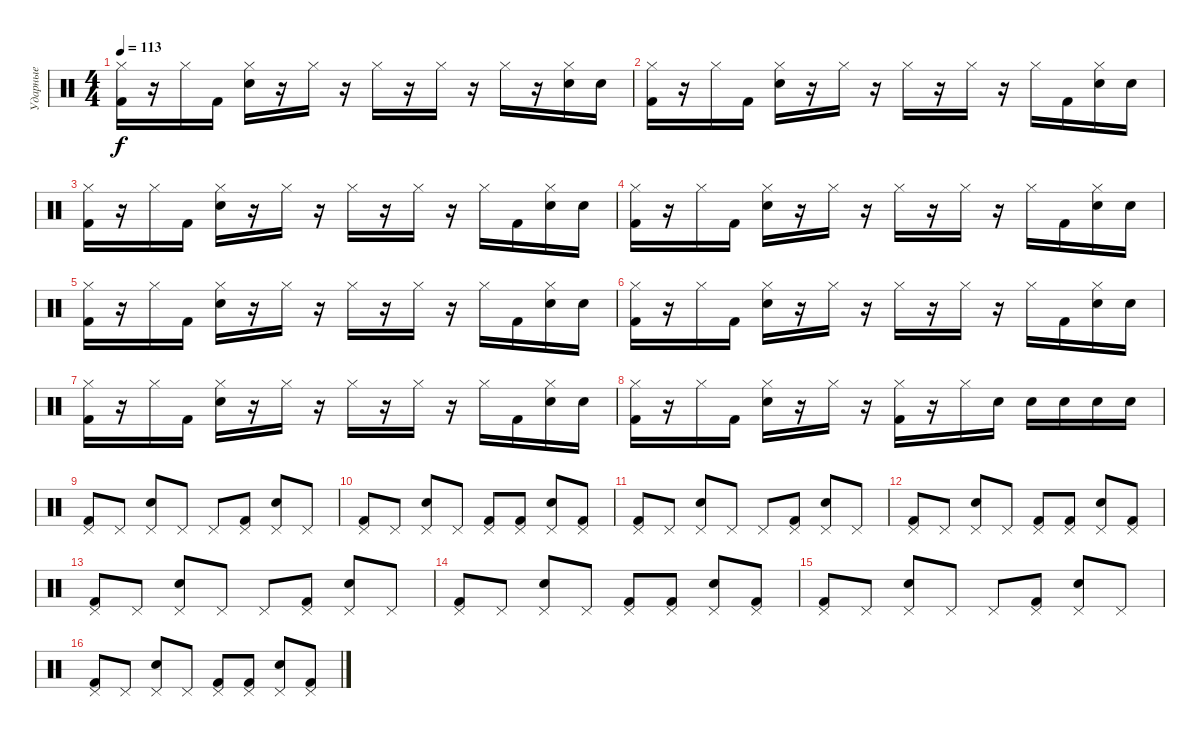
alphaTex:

\track ("Ударные" "Ударные") {instrument percussion}
\staff {score}
\articulation defaults
\ts (4 4)
\tempo 113
\clef neutral
\ks c
("Kick (hit) 2" "Hi-Hat (closed)").16{dy f} r.16 "Hi-Hat (closed)".16 "Kick (hit) 2".16 ("Electric Snare (hit)" "Hi-Hat (closed)").16 r.16 "Hi-Hat (closed)".16 r.16 "Hi-Hat (closed)".16 r.16 "Hi-Hat (closed)".16 r.16 "Hi-Hat (closed)".16 r.16 ("Electric Snare (hit)" "Hi-Hat (closed)").16 "Electric Snare (hit)".16 |
("Kick (hit) 2" "Hi-Hat (closed)").16 r.16 "Hi-Hat (closed)".16 "Kick (hit) 2".16 ("Electric Snare (hit)" "Hi-Hat (closed)").16 r.16 "Hi-Hat (closed)".16 r.16 "Hi-Hat (closed)".16 r.16 "Hi-Hat (closed)".16 r.16 "Hi-Hat (closed)".16 "Kick (hit) 2".16 ("Electric Snare (hit)" "Hi-Hat (closed)").16 "Electric Snare (hit)".16 |
("Kick (hit) 2" "Hi-Hat (closed)").16 r.16 "Hi-Hat (closed)".16 "Kick (hit) 2".16 ("Electric Snare (hit)" "Hi-Hat (closed)").16 r.16 "Hi-Hat (closed)".16 r.16 "Hi-Hat (closed)".16 r.16 "Hi-Hat (closed)".16 r.16 "Hi-Hat (closed)".16 "Kick (hit) 2".16 ("Electric Snare (hit)" "Hi-Hat (closed)").16 "Electric Snare (hit)".16 |
("Kick (hit) 2" "Hi-Hat (closed)").16 r.16 "Hi-Hat (closed)".16 "Kick (hit) 2".16 ("Electric Snare (hit)" "Hi-Hat (closed)").16 r.16 "Hi-Hat (closed)".16 r.16 "Hi-Hat (closed)".16 r.16 "Hi-Hat (closed)".16 r.16 "Hi-Hat (closed)".16 "Kick (hit) 2".16 ("Electric Snare (hit)" "Hi-Hat (closed)").16 "Electric Snare (hit)".16 |
("Kick (hit) 2" "Hi-Hat (closed)").16 r.16 "Hi-Hat (closed)".16 "Kick (hit) 2".16 ("Electric Snare (hit)" "Hi-Hat (closed)").16 r.16 "Hi-Hat (closed)".16 r.16 "Hi-Hat (closed)".16 r.16 "Hi-Hat (closed)".16 r.16 "Hi-Hat (closed)".16 "Kick (hit) 2".16 ("Electric Snare (hit)" "Hi-Hat (closed)").16 "Electric Snare (hit)".16 |
("Kick (hit) 2" "Hi-Hat (closed)").16 r.16 "Hi-Hat (closed)".16 "Kick (hit) 2".16 ("Electric Snare (hit)" "Hi-Hat (closed)").16 r.16 "Hi-Hat (closed)".16 r.16 "Hi-Hat (closed)".16 r.16 "Hi-Hat (closed)".16 r.16 "Hi-Hat (closed)".16 "Kick (hit) 2".16 ("Electric Snare (hit)" "Hi-Hat (closed)").16 "Electric Snare (hit)".16 |
("Kick (hit) 2" "Hi-Hat (closed)").16 r.16 "Hi-Hat (closed)".16 "Kick (hit) 2".16 ("Electric Snare (hit)" "Hi-Hat (closed)").16 r.16 "Hi-Hat (closed)".16 r.16 "Hi-Hat (closed)".16 r.16 "Hi-Hat (closed)".16 r.16 "Hi-Hat (closed)".16 "Kick (hit) 2".16 ("Electric Snare (hit)" "Hi-Hat (closed)").16 "Electric Snare (hit)".16 |
("Kick (hit) 2" "Hi-Hat (closed)").16 r.16 "Hi-Hat (closed)".16 "Kick (hit) 2".16 ("Electric Snare (hit)" "Hi-Hat (closed)").16 r.16 "Hi-Hat (closed)".16 r.16 ("Kick (hit) 2" "Hi-Hat (closed)").16 r.16 "Hi-Hat (closed)".16 "Electric Snare (hit)".16 "Electric Snare (hit)".16 "Electric Snare (hit)".16 "Electric Snare (hit)".16 "Electric Snare (hit)".16 |
("Kick (hit) 2" "Pedal Hi-Hat (hit)").8 "Pedal Hi-Hat (hit)".8 ("Electric Snare (hit)" "Pedal Hi-Hat (hit)").8 "Pedal Hi-Hat (hit)".8 "Pedal Hi-Hat (hit)".8 ("Kick (hit) 2" "Pedal Hi-Hat (hit)").8 ("Electric Snare (hit)" "Pedal Hi-Hat (hit)").8 "Pedal Hi-Hat (hit)".8 |
("Kick (hit) 2" "Pedal Hi-Hat (hit)").8 "Pedal Hi-Hat (hit)".8 ("Electric Snare (hit)" "Pedal Hi-Hat (hit)").8 "Pedal Hi-Hat (hit)".8 ("Kick (hit) 2" "Pedal Hi-Hat (hit)").8 ("Kick (hit) 2" "Pedal Hi-Hat (hit)").8 ("Electric Snare (hit)" "Pedal Hi-Hat (hit)").8 ("Kick (hit) 2" "Pedal Hi-Hat (hit)").8 |
("Kick (hit) 2" "Pedal Hi-Hat (hit)").8 "Pedal Hi-Hat (hit)".8 ("Electric Snare (hit)" "Pedal Hi-Hat (hit)").8 "Pedal Hi-Hat (hit)".8 "Pedal Hi-Hat (hit)".8 ("Kick (hit) 2" "Pedal Hi-Hat (hit)").8 ("Electric Snare (hit)" "Pedal Hi-Hat (hit)").8 "Pedal Hi-Hat (hit)".8 |
("Kick (hit) 2" "Pedal Hi-Hat (hit)").8 "Pedal Hi-Hat (hit)".8 ("Electric Snare (hit)" "Pedal Hi-Hat (hit)").8 "Pedal Hi-Hat (hit)".8 ("Kick (hit) 2" "Pedal Hi-Hat (hit)").8 ("Kick (hit) 2" "Pedal Hi-Hat (hit)").8 ("Electric Snare (hit)" "Pedal Hi-Hat (hit)").8 ("Kick (hit) 2" "Pedal Hi-Hat (hit)").8 |
("Kick (hit) 2" "Pedal Hi-Hat (hit)").8 "Pedal Hi-Hat (hit)".8 ("Electric Snare (hit)" "Pedal Hi-Hat (hit)").8 "Pedal Hi-Hat (hit)".8 "Pedal Hi-Hat (hit)".8 ("Kick (hit) 2" "Pedal Hi-Hat (hit)").8 ("Electric Snare (hit)" "Pedal Hi-Hat (hit)").8 "Pedal Hi-Hat (hit)".8 |
("Kick (hit) 2" "Pedal Hi-Hat (hit)").8 "Pedal Hi-Hat (hit)".8 ("Electric Snare (hit)" "Pedal Hi-Hat (hit)").8 "Pedal Hi-Hat (hit)".8 ("Kick (hit) 2" "Pedal Hi-Hat (hit)").8 ("Kick (hit) 2" "Pedal Hi-Hat (hit)").8 ("Electric Snare (hit)" "Pedal Hi-Hat (hit)").8 ("Kick (hit) 2" "Pedal Hi-Hat (hit)").8 |
("Kick (hit) 2" "Pedal Hi-Hat (hit)").8 "Pedal Hi-Hat (hit)".8 ("Electric Snare (hit)" "Pedal Hi-Hat (hit)").8 "Pedal Hi-Hat (hit)".8 "Pedal Hi-Hat (hit)".8 ("Kick (hit) 2" "Pedal Hi-Hat (hit)").8 ("Electric Snare (hit)" "Pedal Hi-Hat (hit)").8 "Pedal Hi-Hat (hit)".8 |
("Kick (hit) 2" "Pedal Hi-Hat (hit)").8 "Pedal Hi-Hat (hit)".8 ("Electric Snare (hit)" "Pedal Hi-Hat (hit)").8 "Pedal Hi-Hat (hit)".8 ("Kick (hit) 2" "Pedal Hi-Hat (hit)").8 ("Kick (hit) 2" "Pedal Hi-Hat (hit)").8 ("Electric Snare (hit)" "Pedal Hi-Hat (hit)").8 ("Kick (hit) 2" "Pedal Hi-Hat (hit)").8
